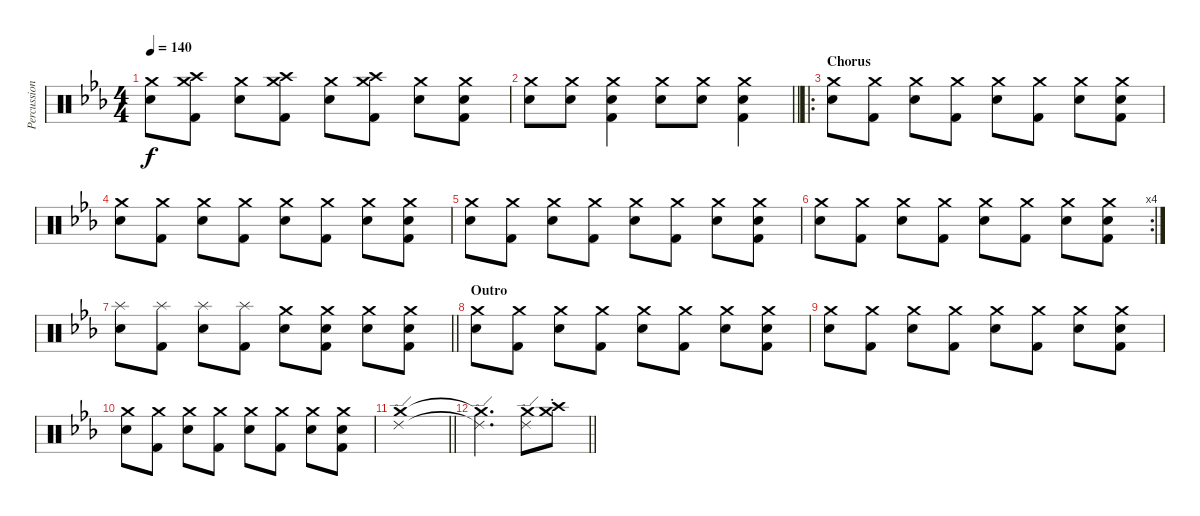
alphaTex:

\track ("Percussion (John)" "Percussion") {instrument percussion}
\staff {score}
\articulation defaults
\ts (4 4)
\tempo 140
\clef neutral
\ks cminor
("Crash medium (hit)" "Electric Snare (hit)").8{dy f} ("Crash medium (hit)" "Crash high (hit)" "Kick (hit) 2").8 ("Crash medium (hit)" "Electric Snare (hit)").8 ("Crash medium (hit)" "Crash high (hit)" "Kick (hit) 2").8 ("Crash medium (hit)" "Electric Snare (hit)").8 ("Crash medium (hit)" "Crash high (hit)" "Kick (hit) 2").8 ("Crash medium (hit)" "Electric Snare (hit)").8 ("Crash medium (hit)" "Electric Snare (hit)" "Kick (hit) 2").8 |
\barLineRight lightlight
("Crash medium (hit)" "Electric Snare (hit)").8 ("Crash medium (hit)" "Electric Snare (hit)").8 ("Crash medium (hit)" "Electric Snare (hit)" "Kick (hit) 2").4 ("Crash medium (hit)" "Electric Snare (hit)").8 ("Crash medium (hit)" "Electric Snare (hit)").8 ("Crash medium (hit)" "Electric Snare (hit)" "Kick (hit) 2").4 |
\ro
\section ("" "Chorus")
("Crash medium (hit)" "Electric Snare (hit)").8 ("Crash medium (hit)" "Kick (hit) 2").8 ("Crash medium (hit)" "Electric Snare (hit)").8 ("Crash medium (hit)" "Kick (hit) 2").8 ("Crash medium (hit)" "Electric Snare (hit)").8 ("Crash medium (hit)" "Kick (hit) 2").8 ("Crash medium (hit)" "Electric Snare (hit)").8 ("Crash medium (hit)" "Electric Snare (hit)" "Kick (hit) 2").8 |
("Crash medium (hit)" "Electric Snare (hit)").8 ("Crash medium (hit)" "Kick (hit) 2").8 ("Crash medium (hit)" "Electric Snare (hit)").8 ("Crash medium (hit)" "Kick (hit) 2").8 ("Crash medium (hit)" "Electric Snare (hit)").8 ("Crash medium (hit)" "Kick (hit) 2").8 ("Crash medium (hit)" "Electric Snare (hit)").8 ("Crash medium (hit)" "Electric Snare (hit)" "Kick (hit) 2").8 |
("Crash medium (hit)" "Electric Snare (hit)").8 ("Crash medium (hit)" "Kick (hit) 2").8 ("Crash medium (hit)" "Electric Snare (hit)").8 ("Crash medium (hit)" "Kick (hit) 2").8 ("Crash medium (hit)" "Electric Snare (hit)").8 ("Crash medium (hit)" "Kick (hit) 2").8 ("Crash medium (hit)" "Electric Snare (hit)").8 ("Crash medium (hit)" "Electric Snare (hit)" "Kick (hit) 2").8 |
\rc 4
("Crash medium (hit)" "Electric Snare (hit)").8 ("Crash medium (hit)" "Kick (hit) 2").8 ("Crash medium (hit)" "Electric Snare (hit)").8 ("Crash medium (hit)" "Kick (hit) 2").8 ("Crash medium (hit)" "Electric Snare (hit)").8 ("Crash medium (hit)" "Kick (hit) 2").8 ("Crash medium (hit)" "Electric Snare (hit)").8 ("Crash medium (hit)" "Electric Snare (hit)" "Kick (hit) 2").8 |
\barLineRight lightlight
("Splash (hit)" "Electric Snare (hit)").8 ("Splash (hit)" "Kick (hit) 2").8 ("Splash (hit)" "Electric Snare (hit)").8 ("Splash (hit)" "Kick (hit) 2").8 ("Crash medium (hit)" "Electric Snare (hit)").8 ("Crash medium (hit)" "Electric Snare (hit)" "Kick (hit) 2").8 ("Crash medium (hit)" "Electric Snare (hit)").8 ("Crash medium (hit)" "Electric Snare (hit)" "Kick (hit) 2").8 |
\section ("" "Outro")
("Crash medium (hit)" "Electric Snare (hit)").8 ("Crash medium (hit)" "Kick (hit) 2").8 ("Crash medium (hit)" "Electric Snare (hit)").8 ("Crash medium (hit)" "Kick (hit) 2").8 ("Crash medium (hit)" "Electric Snare (hit)").8 ("Crash medium (hit)" "Kick (hit) 2").8 ("Crash medium (hit)" "Electric Snare (hit)").8 ("Crash medium (hit)" "Electric Snare (hit)" "Kick (hit) 2").8 |
("Crash medium (hit)" "Electric Snare (hit)").8 ("Crash medium (hit)" "Kick (hit) 2").8 ("Crash medium (hit)" "Electric Snare (hit)").8 ("Crash medium (hit)" "Kick (hit) 2").8 ("Crash medium (hit)" "Electric Snare (hit)").8 ("Crash medium (hit)" "Kick (hit) 2").8 ("Crash medium (hit)" "Electric Snare (hit)").8 ("Crash medium (hit)" "Electric Snare (hit)" "Kick (hit) 2").8 |
("Crash medium (hit)" "Electric Snare (hit)").8 ("Crash medium (hit)" "Kick (hit) 2").8 ("Crash medium (hit)" "Electric Snare (hit)").8 ("Crash medium (hit)" "Kick (hit) 2").8 ("Crash medium (hit)" "Electric Snare (hit)").8 ("Crash medium (hit)" "Kick (hit) 2").8 ("Crash medium (hit)" "Electric Snare (hit)").8 ("Crash medium (hit)" "Electric Snare (hit)" "Kick (hit) 2").8 |
\barLineRight lightlight
("Crash medium (hit)" "Ride (edge) 2").1 |
\barLineRight lightlight
("Crash medium (hit)"{t} "Ride (edge) 2"{t}).2{d} ("Crash medium (hit)" "Ride (edge) 2").8 ("Crash medium (hit)"{st} "Crash high (hit)"{st}).8
